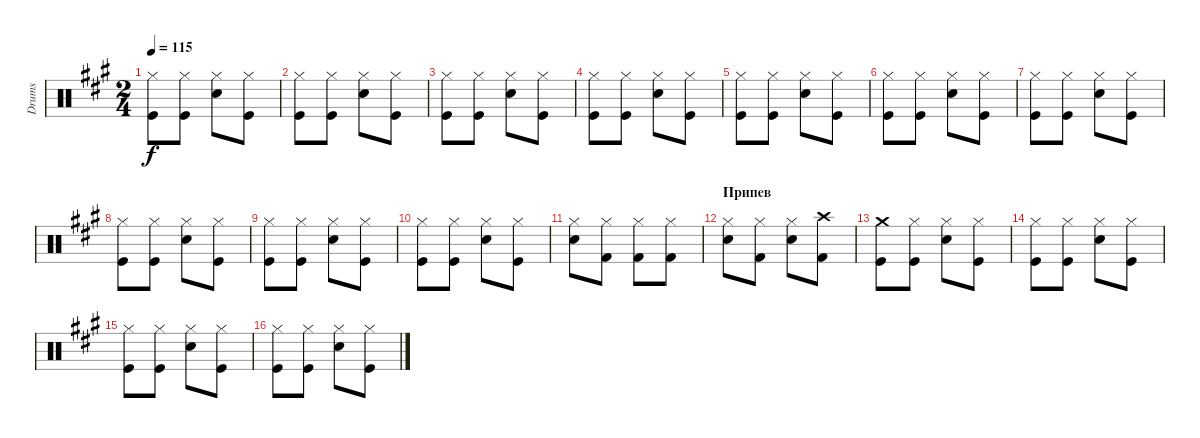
\track ("Drums" "Drums") {instrument percussion}
\staff {score}
\articulation defaults
\ts (2 4)
\tempo 115
\clef neutral
\ks f#minor
("Hi-Hat (closed)" "Kick (hit)").8{dy f} ("Hi-Hat (closed)" "Kick (hit)").8 ("Hi-Hat (closed)" "Electric Snare (hit)").8 ("Hi-Hat (closed)" "Kick (hit)").8 |
("Hi-Hat (closed)" "Kick (hit)").8 ("Hi-Hat (closed)" "Kick (hit)").8 ("Hi-Hat (closed)" "Electric Snare (hit)").8 ("Hi-Hat (closed)" "Kick (hit)").8 |
("Hi-Hat (closed)" "Kick (hit)").8 ("Hi-Hat (closed)" "Kick (hit)").8 ("Hi-Hat (closed)" "Electric Snare (hit)").8 ("Hi-Hat (closed)" "Kick (hit)").8 |
("Hi-Hat (closed)" "Kick (hit)").8 ("Hi-Hat (closed)" "Kick (hit)").8 ("Hi-Hat (closed)" "Electric Snare (hit)").8 ("Hi-Hat (closed)" "Kick (hit)").8 |
("Hi-Hat (closed)" "Kick (hit)").8 ("Hi-Hat (closed)" "Kick (hit)").8 ("Hi-Hat (closed)" "Electric Snare (hit)").8 ("Hi-Hat (closed)" "Kick (hit)").8 |
("Hi-Hat (closed)" "Kick (hit)").8 ("Hi-Hat (closed)" "Kick (hit)").8 ("Hi-Hat (closed)" "Electric Snare (hit)").8 ("Hi-Hat (closed)" "Kick (hit)").8 |
("Hi-Hat (closed)" "Kick (hit)").8 ("Hi-Hat (closed)" "Kick (hit)").8 ("Hi-Hat (closed)" "Electric Snare (hit)").8 ("Hi-Hat (closed)" "Kick (hit)").8 |
("Hi-Hat (closed)" "Kick (hit)").8 ("Hi-Hat (closed)" "Kick (hit)").8 ("Hi-Hat (closed)" "Electric Snare (hit)").8 ("Hi-Hat (closed)" "Kick (hit)").8 |
("Hi-Hat (closed)" "Kick (hit)").8 ("Hi-Hat (closed)" "Kick (hit)").8 ("Hi-Hat (closed)" "Electric Snare (hit)").8 ("Hi-Hat (closed)" "Kick (hit)").8 |
("Hi-Hat (closed)" "Kick (hit)").8 ("Hi-Hat (closed)" "Kick (hit)").8 ("Hi-Hat (closed)" "Electric Snare (hit)").8 ("Hi-Hat (closed)" "Kick (hit)").8 |
("Hi-Hat (closed)" "Electric Snare (hit)").8 ("Hi-Hat (closed)" "Kick (hit) 2").8 ("Hi-Hat (closed)" "Kick (hit) 2").8 ("Hi-Hat (closed)" "Kick (hit) 2").8 |
\section ("" "Припев")
("Hi-Hat (closed)" "Electric Snare (hit)").8 ("Hi-Hat (closed)" "Kick (hit) 2").8 ("Hi-Hat (closed)" "Electric Snare (hit)").8 ("Crash high (hit)" "Kick (hit) 2").8 |
("Crash medium (hit)" "Kick (hit)").8 ("Hi-Hat (closed)" "Kick (hit)").8 ("Hi-Hat (closed)" "Electric Snare (hit)").8 ("Hi-Hat (closed)" "Kick (hit)").8 |
("Hi-Hat (closed)" "Kick (hit)").8 ("Hi-Hat (closed)" "Kick (hit)").8 ("Hi-Hat (closed)" "Electric Snare (hit)").8 ("Hi-Hat (closed)" "Kick (hit)").8 |
("Hi-Hat (closed)" "Kick (hit)").8 ("Hi-Hat (closed)" "Kick (hit)").8 ("Hi-Hat (closed)" "Electric Snare (hit)").8 ("Hi-Hat (closed)" "Kick (hit)").8 |
("Hi-Hat (closed)" "Kick (hit)").8 ("Hi-Hat (closed)" "Kick (hit)").8 ("Hi-Hat (closed)" "Electric Snare (hit)").8 ("Hi-Hat (closed)" "Kick (hit)").8
